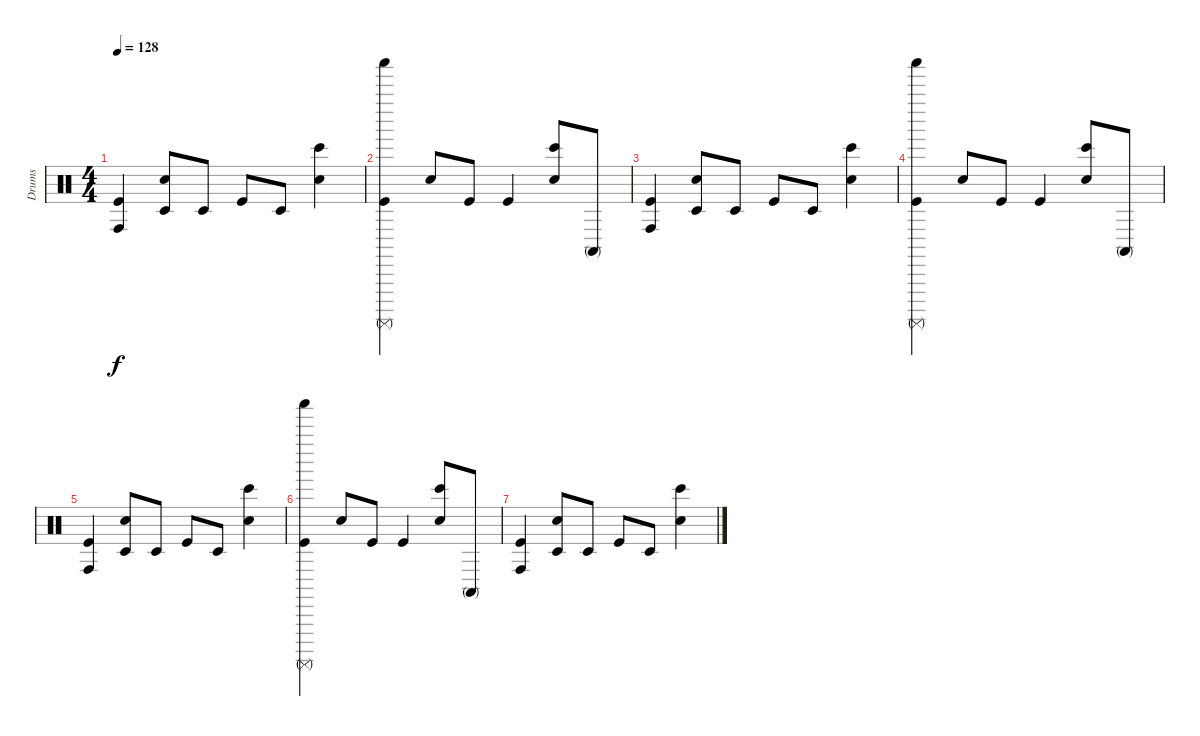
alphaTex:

\track ("Drums" "Drums") {instrument percussion}
\staff {score}
\articulation defaults
\ts (4 4)
\tempo 128
\clef neutral
\ks c
("Conga high (hit)" "Kick (hit)").4{dy f} ("Timbale low (hit)" "Electric Snare (hit)").8 "Timbale low (hit)".8 "Kick (hit)".8 "Timbale low (hit)".8 ("Bongo High (hit)" "Electric Snare (hit)").4 |
("Surdo (mute)" "Shaker (hit)" "Kick (hit)").4 "Electric Snare (hit)".8 "Kick (hit)".8 "Kick (hit)".4 ("Bongo High (hit)" "Electric Snare (hit)").8 "Conga high (mute)".8 |
("Conga high (hit)" "Kick (hit)").4 ("Timbale low (hit)" "Electric Snare (hit)").8 "Timbale low (hit)".8 "Kick (hit)".8 "Timbale low (hit)".8 ("Bongo High (hit)" "Electric Snare (hit)").4 |
("Surdo (mute)" "Shaker (hit)" "Kick (hit)").4 "Electric Snare (hit)".8 "Kick (hit)".8 "Kick (hit)".4 ("Bongo High (hit)" "Electric Snare (hit)").8 "Conga high (mute)".8 |
("Conga high (hit)" "Kick (hit)").4 ("Timbale low (hit)" "Electric Snare (hit)").8 "Timbale low (hit)".8 "Kick (hit)".8 "Timbale low (hit)".8 ("Bongo High (hit)" "Electric Snare (hit)").4 |
("Surdo (mute)" "Shaker (hit)" "Kick (hit)").4 "Electric Snare (hit)".8 "Kick (hit)".8 "Kick (hit)".4 ("Bongo High (hit)" "Electric Snare (hit)").8 "Conga high (mute)".8 |
("Conga high (hit)" "Kick (hit)").4 ("Timbale low (hit)" "Electric Snare (hit)").8 "Timbale low (hit)".8 "Kick (hit)".8 "Timbale low (hit)".8 ("Bongo High (hit)" "Electric Snare (hit)").4
